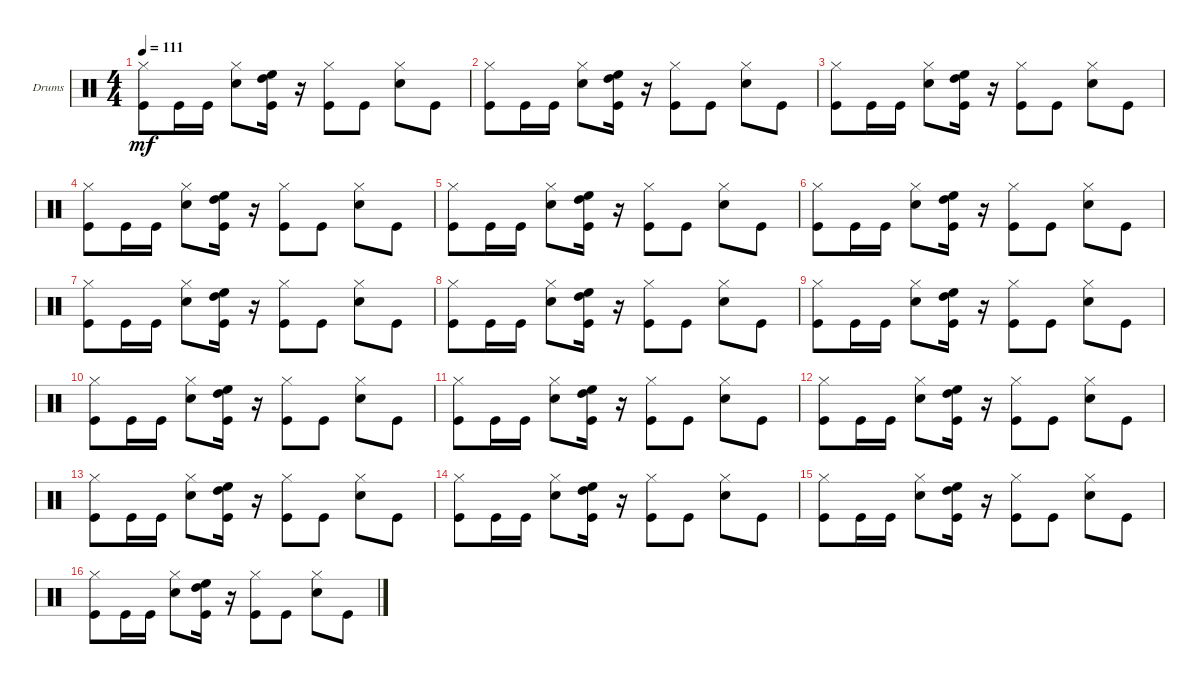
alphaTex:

\defaultSystemsLayout 4
\bracketExtendMode groupsimilarinstruments
\firstSystemTrackNameOrientation horizontal
\otherSystemsTrackNameOrientation horizontal
\track ("Drumkit" "Drums") {instrument percussion}
\staff {score}
\articulation defaults
\ts (4 4)
\tempo 111
\clef neutral
\ks c
("Kick (hit)" "Hi-Hat (closed)").8{dy mf} "Kick (hit)".16 "Kick (hit)".16 ("Snare (hit) 2" "Hi-Hat (closed)").8 ("Kick (hit)" "High Tom (hit)" "High Floor Tom (hit)").16 r.16 ("Kick (hit)" "Hi-Hat (closed)").8 "Kick (hit)".8 ("Hi-Hat (closed)" "Snare (hit) 2").8 "Kick (hit)".8 |
("Kick (hit)" "Hi-Hat (closed)").8 "Kick (hit)".16 "Kick (hit)".16 ("Snare (hit) 2" "Hi-Hat (closed)").8 ("Kick (hit)" "High Tom (hit)" "High Floor Tom (hit)").16 r.16 ("Kick (hit)" "Hi-Hat (closed)").8 "Kick (hit)".8 ("Hi-Hat (closed)" "Snare (hit) 2").8 "Kick (hit)".8 |
("Kick (hit)" "Hi-Hat (closed)").8 "Kick (hit)".16 "Kick (hit)".16 ("Snare (hit) 2" "Hi-Hat (closed)").8 ("Kick (hit)" "High Tom (hit)" "High Floor Tom (hit)").16 r.16 ("Kick (hit)" "Hi-Hat (closed)").8 "Kick (hit)".8 ("Hi-Hat (closed)" "Snare (hit) 2").8 "Kick (hit)".8 |
("Kick (hit)" "Hi-Hat (closed)").8 "Kick (hit)".16 "Kick (hit)".16 ("Snare (hit) 2" "Hi-Hat (closed)").8 ("Kick (hit)" "High Tom (hit)" "High Floor Tom (hit)").16 r.16 ("Kick (hit)" "Hi-Hat (closed)").8 "Kick (hit)".8 ("Hi-Hat (closed)" "Snare (hit) 2").8 "Kick (hit)".8 |
("Kick (hit)" "Hi-Hat (closed)").8 "Kick (hit)".16 "Kick (hit)".16 ("Snare (hit) 2" "Hi-Hat (closed)").8 ("Kick (hit)" "High Tom (hit)" "High Floor Tom (hit)").16 r.16 ("Kick (hit)" "Hi-Hat (closed)").8 "Kick (hit)".8 ("Hi-Hat (closed)" "Snare (hit) 2").8 "Kick (hit)".8 |
("Kick (hit)" "Hi-Hat (closed)").8 "Kick (hit)".16 "Kick (hit)".16 ("Snare (hit) 2" "Hi-Hat (closed)").8 ("Kick (hit)" "High Tom (hit)" "High Floor Tom (hit)").16 r.16 ("Kick (hit)" "Hi-Hat (closed)").8 "Kick (hit)".8 ("Hi-Hat (closed)" "Snare (hit) 2").8 "Kick (hit)".8 |
("Kick (hit)" "Hi-Hat (closed)").8 "Kick (hit)".16 "Kick (hit)".16 ("Snare (hit) 2" "Hi-Hat (closed)").8 ("Kick (hit)" "High Tom (hit)" "High Floor Tom (hit)").16 r.16 ("Kick (hit)" "Hi-Hat (closed)").8 "Kick (hit)".8 ("Hi-Hat (closed)" "Snare (hit) 2").8 "Kick (hit)".8 |
("Kick (hit)" "Hi-Hat (closed)").8 "Kick (hit)".16 "Kick (hit)".16 ("Snare (hit) 2" "Hi-Hat (closed)").8 ("Kick (hit)" "High Tom (hit)" "High Floor Tom (hit)").16 r.16 ("Kick (hit)" "Hi-Hat (closed)").8 "Kick (hit)".8 ("Hi-Hat (closed)" "Snare (hit) 2").8 "Kick (hit)".8 |
("Kick (hit)" "Hi-Hat (closed)").8 "Kick (hit)".16 "Kick (hit)".16 ("Snare (hit) 2" "Hi-Hat (closed)").8 ("Kick (hit)" "High Tom (hit)" "High Floor Tom (hit)").16 r.16 ("Kick (hit)" "Hi-Hat (closed)").8 "Kick (hit)".8 ("Hi-Hat (closed)" "Snare (hit) 2").8 "Kick (hit)".8 |
("Kick (hit)" "Hi-Hat (closed)").8 "Kick (hit)".16 "Kick (hit)".16 ("Snare (hit) 2" "Hi-Hat (closed)").8 ("Kick (hit)" "High Tom (hit)" "High Floor Tom (hit)").16 r.16 ("Kick (hit)" "Hi-Hat (closed)").8 "Kick (hit)".8 ("Hi-Hat (closed)" "Snare (hit) 2").8 "Kick (hit)".8 |
("Kick (hit)" "Hi-Hat (closed)").8 "Kick (hit)".16 "Kick (hit)".16 ("Snare (hit) 2" "Hi-Hat (closed)").8 ("Kick (hit)" "High Tom (hit)" "High Floor Tom (hit)").16 r.16 ("Kick (hit)" "Hi-Hat (closed)").8 "Kick (hit)".8 ("Hi-Hat (closed)" "Snare (hit) 2").8 "Kick (hit)".8 |
("Kick (hit)" "Hi-Hat (closed)").8 "Kick (hit)".16 "Kick (hit)".16 ("Snare (hit) 2" "Hi-Hat (closed)").8 ("Kick (hit)" "High Tom (hit)" "High Floor Tom (hit)").16 r.16 ("Kick (hit)" "Hi-Hat (closed)").8 "Kick (hit)".8 ("Hi-Hat (closed)" "Snare (hit) 2").8 "Kick (hit)".8 |
("Kick (hit)" "Hi-Hat (closed)").8 "Kick (hit)".16 "Kick (hit)".16 ("Snare (hit) 2" "Hi-Hat (closed)").8 ("Kick (hit)" "High Tom (hit)" "High Floor Tom (hit)").16 r.16 ("Kick (hit)" "Hi-Hat (closed)").8 "Kick (hit)".8 ("Hi-Hat (closed)" "Snare (hit) 2").8 "Kick (hit)".8 |
("Kick (hit)" "Hi-Hat (closed)").8 "Kick (hit)".16 "Kick (hit)".16 ("Snare (hit) 2" "Hi-Hat (closed)").8 ("Kick (hit)" "High Tom (hit)" "High Floor Tom (hit)").16 r.16 ("Kick (hit)" "Hi-Hat (closed)").8 "Kick (hit)".8 ("Hi-Hat (closed)" "Snare (hit) 2").8 "Kick (hit)".8 |
("Kick (hit)" "Hi-Hat (closed)").8 "Kick (hit)".16 "Kick (hit)".16 ("Snare (hit) 2" "Hi-Hat (closed)").8 ("Kick (hit)" "High Tom (hit)" "High Floor Tom (hit)").16 r.16 ("Kick (hit)" "Hi-Hat (closed)").8 "Kick (hit)".8 ("Hi-Hat (closed)" "Snare (hit) 2").8 "Kick (hit)".8 |
("Kick (hit)" "Hi-Hat (closed)").8 "Kick (hit)".16 "Kick (hit)".16 ("Snare (hit) 2" "Hi-Hat (closed)").8 ("Kick (hit)" "High Tom (hit)" "High Floor Tom (hit)").16 r.16 ("Kick (hit)" "Hi-Hat (closed)").8 "Kick (hit)".8 ("Hi-Hat (closed)" "Snare (hit) 2").8 "Kick (hit)".8
